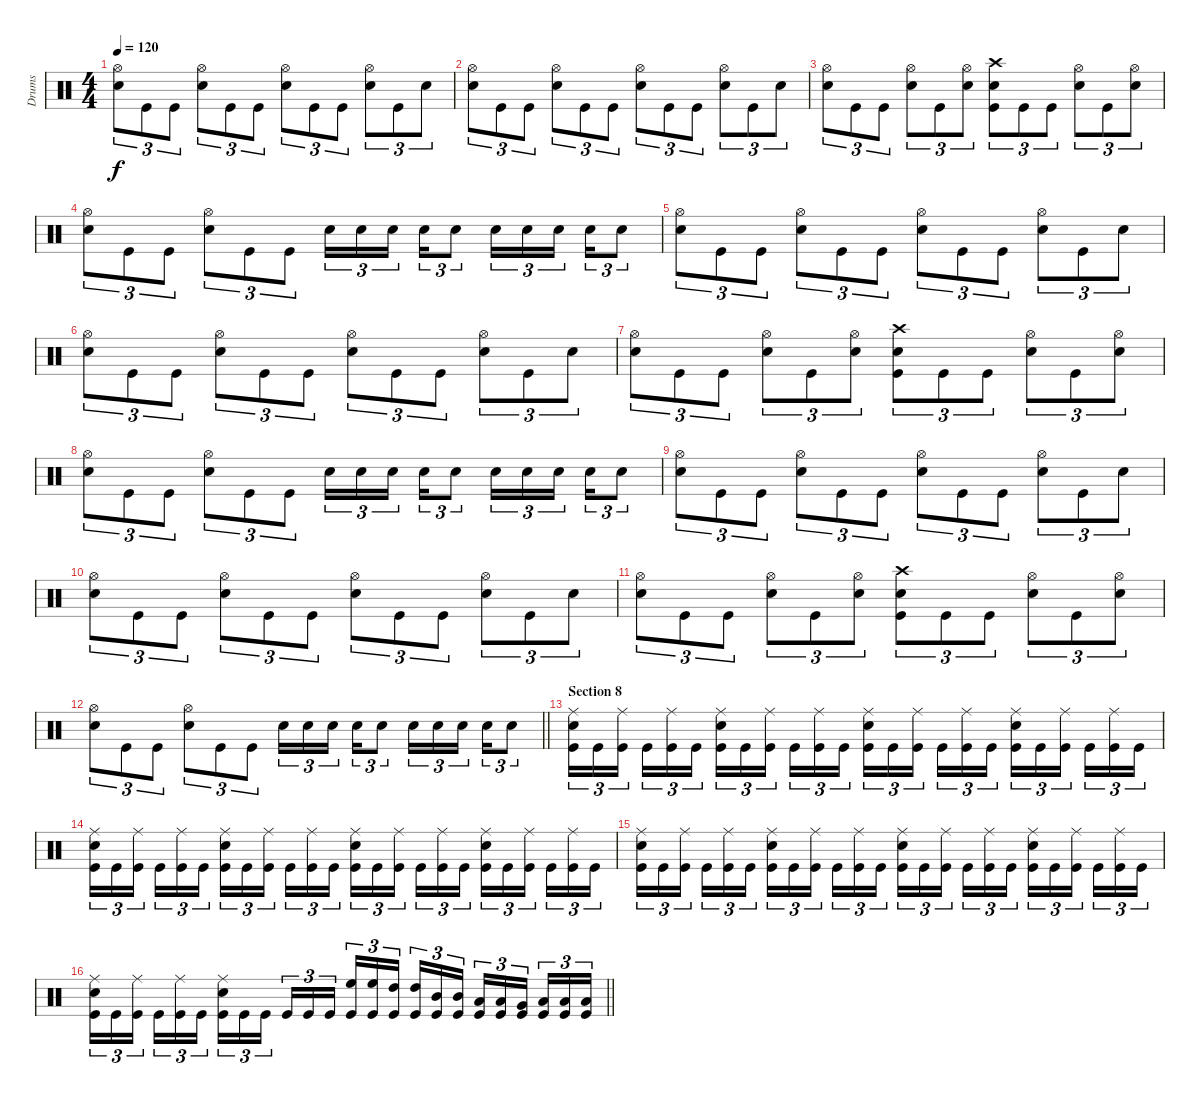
\track ("Drums" "Drums") {instrument percussion}
\staff {score}
\articulation defaults
\ts (4 4)
\tempo 120
\clef neutral
\ks c
("Hi-Hat (open)" "Snare (hit) 2").8{tu (3 2) dy f} "Kick (hit)".8{tu (3 2)} "Kick (hit)".8{tu (3 2)} ("Hi-Hat (open)" "Snare (hit) 2").8{tu (3 2)} "Kick (hit)".8{tu (3 2)} "Kick (hit)".8{tu (3 2)} ("Hi-Hat (open)" "Snare (hit) 2").8{tu (3 2)} "Kick (hit)".8{tu (3 2)} "Kick (hit)".8{tu (3 2)} ("Hi-Hat (open)" "Snare (hit) 2").8{tu (3 2)} "Kick (hit)".8{tu (3 2)} "Snare (hit) 2".8{tu (3 2)} |
("Hi-Hat (open)" "Snare (hit) 2").8{tu (3 2)} "Kick (hit)".8{tu (3 2)} "Kick (hit)".8{tu (3 2)} ("Hi-Hat (open)" "Snare (hit) 2").8{tu (3 2)} "Kick (hit)".8{tu (3 2)} "Kick (hit)".8{tu (3 2)} ("Hi-Hat (open)" "Snare (hit) 2").8{tu (3 2)} "Kick (hit)".8{tu (3 2)} "Kick (hit)".8{tu (3 2)} ("Hi-Hat (open)" "Snare (hit) 2").8{tu (3 2)} "Kick (hit)".8{tu (3 2)} "Snare (hit) 2".8{tu (3 2)} |
("Hi-Hat (open)" "Snare (hit) 2").8{tu (3 2)} "Kick (hit)".8{tu (3 2)} "Kick (hit)".8{tu (3 2)} ("Hi-Hat (open)" "Snare (hit) 2").8{tu (3 2)} "Kick (hit)".8{tu (3 2)} ("Hi-Hat (open)" "Snare (hit) 2").8{tu (3 2)} ("Crash high (hit)" "Snare (hit) 2" "Kick (hit)").8{tu (3 2)} "Kick (hit)".8{tu (3 2)} "Kick (hit)".8{tu (3 2)} ("Hi-Hat (open)" "Snare (hit) 2").8{tu (3 2)} "Kick (hit)".8{tu (3 2)} ("Hi-Hat (open)" "Snare (hit) 2").8{tu (3 2)} |
("Hi-Hat (open)" "Snare (hit) 2").8{tu (3 2)} "Kick (hit)".8{tu (3 2)} "Kick (hit)".8{tu (3 2)} ("Hi-Hat (open)" "Snare (hit) 2").8{tu (3 2)} "Kick (hit)".8{tu (3 2)} "Kick (hit)".8{tu (3 2)} "Snare (hit) 2".16{tu (3 2)} "Snare (hit) 2".16{tu (3 2)} "Snare (hit) 2".16{tu (3 2) beam splitsecondary} "Snare (hit) 2".16{tu (3 2)} "Snare (hit) 2".8{tu (3 2)} "Snare (hit) 2".16{tu (3 2)} "Snare (hit) 2".16{tu (3 2)} "Snare (hit) 2".16{tu (3 2) beam splitsecondary} "Snare (hit) 2".16{tu (3 2)} "Snare (hit) 2".8{tu (3 2)} |
("Hi-Hat (open)" "Snare (hit) 2").8{tu (3 2)} "Kick (hit)".8{tu (3 2)} "Kick (hit)".8{tu (3 2)} ("Hi-Hat (open)" "Snare (hit) 2").8{tu (3 2)} "Kick (hit)".8{tu (3 2)} "Kick (hit)".8{tu (3 2)} ("Hi-Hat (open)" "Snare (hit) 2").8{tu (3 2)} "Kick (hit)".8{tu (3 2)} "Kick (hit)".8{tu (3 2)} ("Hi-Hat (open)" "Snare (hit) 2").8{tu (3 2)} "Kick (hit)".8{tu (3 2)} "Snare (hit) 2".8{tu (3 2)} |
("Hi-Hat (open)" "Snare (hit) 2").8{tu (3 2)} "Kick (hit)".8{tu (3 2)} "Kick (hit)".8{tu (3 2)} ("Hi-Hat (open)" "Snare (hit) 2").8{tu (3 2)} "Kick (hit)".8{tu (3 2)} "Kick (hit)".8{tu (3 2)} ("Hi-Hat (open)" "Snare (hit) 2").8{tu (3 2)} "Kick (hit)".8{tu (3 2)} "Kick (hit)".8{tu (3 2)} ("Hi-Hat (open)" "Snare (hit) 2").8{tu (3 2)} "Kick (hit)".8{tu (3 2)} "Snare (hit) 2".8{tu (3 2)} |
("Hi-Hat (open)" "Snare (hit) 2").8{tu (3 2)} "Kick (hit)".8{tu (3 2)} "Kick (hit)".8{tu (3 2)} ("Hi-Hat (open)" "Snare (hit) 2").8{tu (3 2)} "Kick (hit)".8{tu (3 2)} ("Hi-Hat (open)" "Snare (hit) 2").8{tu (3 2)} ("Crash high (hit)" "Snare (hit) 2" "Kick (hit)").8{tu (3 2)} "Kick (hit)".8{tu (3 2)} "Kick (hit)".8{tu (3 2)} ("Hi-Hat (open)" "Snare (hit) 2").8{tu (3 2)} "Kick (hit)".8{tu (3 2)} ("Hi-Hat (open)" "Snare (hit) 2").8{tu (3 2)} |
("Hi-Hat (open)" "Snare (hit) 2").8{tu (3 2)} "Kick (hit)".8{tu (3 2)} "Kick (hit)".8{tu (3 2)} ("Hi-Hat (open)" "Snare (hit) 2").8{tu (3 2)} "Kick (hit)".8{tu (3 2)} "Kick (hit)".8{tu (3 2)} "Snare (hit) 2".16{tu (3 2)} "Snare (hit) 2".16{tu (3 2)} "Snare (hit) 2".16{tu (3 2) beam splitsecondary} "Snare (hit) 2".16{tu (3 2)} "Snare (hit) 2".8{tu (3 2)} "Snare (hit) 2".16{tu (3 2)} "Snare (hit) 2".16{tu (3 2)} "Snare (hit) 2".16{tu (3 2) beam splitsecondary} "Snare (hit) 2".16{tu (3 2)} "Snare (hit) 2".8{tu (3 2)} |
("Hi-Hat (open)" "Snare (hit) 2").8{tu (3 2)} "Kick (hit)".8{tu (3 2)} "Kick (hit)".8{tu (3 2)} ("Hi-Hat (open)" "Snare (hit) 2").8{tu (3 2)} "Kick (hit)".8{tu (3 2)} "Kick (hit)".8{tu (3 2)} ("Hi-Hat (open)" "Snare (hit) 2").8{tu (3 2)} "Kick (hit)".8{tu (3 2)} "Kick (hit)".8{tu (3 2)} ("Hi-Hat (open)" "Snare (hit) 2").8{tu (3 2)} "Kick (hit)".8{tu (3 2)} "Snare (hit) 2".8{tu (3 2)} |
("Hi-Hat (open)" "Snare (hit) 2").8{tu (3 2)} "Kick (hit)".8{tu (3 2)} "Kick (hit)".8{tu (3 2)} ("Hi-Hat (open)" "Snare (hit) 2").8{tu (3 2)} "Kick (hit)".8{tu (3 2)} "Kick (hit)".8{tu (3 2)} ("Hi-Hat (open)" "Snare (hit) 2").8{tu (3 2)} "Kick (hit)".8{tu (3 2)} "Kick (hit)".8{tu (3 2)} ("Hi-Hat (open)" "Snare (hit) 2").8{tu (3 2)} "Kick (hit)".8{tu (3 2)} "Snare (hit) 2".8{tu (3 2)} |
("Hi-Hat (open)" "Snare (hit) 2").8{tu (3 2)} "Kick (hit)".8{tu (3 2)} "Kick (hit)".8{tu (3 2)} ("Hi-Hat (open)" "Snare (hit) 2").8{tu (3 2)} "Kick (hit)".8{tu (3 2)} ("Hi-Hat (open)" "Snare (hit) 2").8{tu (3 2)} ("Crash high (hit)" "Snare (hit) 2" "Kick (hit)").8{tu (3 2)} "Kick (hit)".8{tu (3 2)} "Kick (hit)".8{tu (3 2)} ("Hi-Hat (open)" "Snare (hit) 2").8{tu (3 2)} "Kick (hit)".8{tu (3 2)} ("Hi-Hat (open)" "Snare (hit) 2").8{tu (3 2)} |
\barLineRight lightlight
("Hi-Hat (open)" "Snare (hit) 2").8{tu (3 2)} "Kick (hit)".8{tu (3 2)} "Kick (hit)".8{tu (3 2)} ("Hi-Hat (open)" "Snare (hit) 2").8{tu (3 2)} "Kick (hit)".8{tu (3 2)} "Kick (hit)".8{tu (3 2)} "Snare (hit) 2".16{tu (3 2)} "Snare (hit) 2".16{tu (3 2)} "Snare (hit) 2".16{tu (3 2) beam splitsecondary} "Snare (hit) 2".16{tu (3 2)} "Snare (hit) 2".8{tu (3 2)} "Snare (hit) 2".16{tu (3 2)} "Snare (hit) 2".16{tu (3 2)} "Snare (hit) 2".16{tu (3 2) beam splitsecondary} "Snare (hit) 2".16{tu (3 2)} "Snare (hit) 2".8{tu (3 2)} |
\section ("" "Section 8")
("Ride (middle)" "Snare (hit) 2" "Kick (hit)").16{tu (3 2)} "Kick (hit)".16{tu (3 2)} ("Ride (middle)" "Kick (hit)").16{tu (3 2) beam splitsecondary} "Kick (hit)".16{tu (3 2)} ("Ride (middle)" "Kick (hit)").16{tu (3 2)} "Kick (hit)".16{tu (3 2)} ("Ride (middle)" "Snare (hit) 2" "Kick (hit)").16{tu (3 2)} "Kick (hit)".16{tu (3 2)} ("Ride (middle)" "Kick (hit)").16{tu (3 2) beam splitsecondary} "Kick (hit)".16{tu (3 2)} ("Ride (middle)" "Kick (hit)").16{tu (3 2)} "Kick (hit)".16{tu (3 2)} ("Ride (middle)" "Snare (hit) 2" "Kick (hit)").16{tu (3 2)} "Kick (hit)".16{tu (3 2)} ("Ride (middle)" "Kick (hit)").16{tu (3 2) beam splitsecondary} "Kick (hit)".16{tu (3 2)} ("Ride (middle)" "Kick (hit)").16{tu (3 2)} "Kick (hit)".16{tu (3 2)} ("Ride (middle)" "Snare (hit) 2" "Kick (hit)").16{tu (3 2)} "Kick (hit)".16{tu (3 2)} ("Ride (middle)" "Kick (hit)").16{tu (3 2) beam splitsecondary} "Kick (hit)".16{tu (3 2)} ("Ride (middle)" "Kick (hit)").16{tu (3 2)} "Kick (hit)".16{tu (3 2)} |
("Ride (middle)" "Snare (hit) 2" "Kick (hit)").16{tu (3 2)} "Kick (hit)".16{tu (3 2)} ("Ride (middle)" "Kick (hit)").16{tu (3 2) beam splitsecondary} "Kick (hit)".16{tu (3 2)} ("Ride (middle)" "Kick (hit)").16{tu (3 2)} "Kick (hit)".16{tu (3 2)} ("Ride (middle)" "Snare (hit) 2" "Kick (hit)").16{tu (3 2)} "Kick (hit)".16{tu (3 2)} ("Ride (middle)" "Kick (hit)").16{tu (3 2) beam splitsecondary} "Kick (hit)".16{tu (3 2)} ("Ride (middle)" "Kick (hit)").16{tu (3 2)} "Kick (hit)".16{tu (3 2)} ("Ride (middle)" "Snare (hit) 2" "Kick (hit)").16{tu (3 2)} "Kick (hit)".16{tu (3 2)} ("Ride (middle)" "Kick (hit)").16{tu (3 2) beam splitsecondary} "Kick (hit)".16{tu (3 2)} ("Ride (middle)" "Kick (hit)").16{tu (3 2)} "Kick (hit)".16{tu (3 2)} ("Ride (middle)" "Snare (hit) 2" "Kick (hit)").16{tu (3 2)} "Kick (hit)".16{tu (3 2)} ("Ride (middle)" "Kick (hit)").16{tu (3 2) beam splitsecondary} "Kick (hit)".16{tu (3 2)} ("Ride (middle)" "Kick (hit)").16{tu (3 2)} "Kick (hit)".16{tu (3 2)} |
("Ride (middle)" "Snare (hit) 2" "Kick (hit)").16{tu (3 2)} "Kick (hit)".16{tu (3 2)} ("Ride (middle)" "Kick (hit)").16{tu (3 2) beam splitsecondary} "Kick (hit)".16{tu (3 2)} ("Ride (middle)" "Kick (hit)").16{tu (3 2)} "Kick (hit)".16{tu (3 2)} ("Ride (middle)" "Snare (hit) 2" "Kick (hit)").16{tu (3 2)} "Kick (hit)".16{tu (3 2)} ("Ride (middle)" "Kick (hit)").16{tu (3 2) beam splitsecondary} "Kick (hit)".16{tu (3 2)} ("Ride (middle)" "Kick (hit)").16{tu (3 2)} "Kick (hit)".16{tu (3 2)} ("Ride (middle)" "Snare (hit) 2" "Kick (hit)").16{tu (3 2)} "Kick (hit)".16{tu (3 2)} ("Ride (middle)" "Kick (hit)").16{tu (3 2) beam splitsecondary} "Kick (hit)".16{tu (3 2)} ("Ride (middle)" "Kick (hit)").16{tu (3 2)} "Kick (hit)".16{tu (3 2)} ("Ride (middle)" "Snare (hit) 2" "Kick (hit)").16{tu (3 2)} "Kick (hit)".16{tu (3 2)} ("Ride (middle)" "Kick (hit)").16{tu (3 2) beam splitsecondary} "Kick (hit)".16{tu (3 2)} ("Ride (middle)" "Kick (hit)").16{tu (3 2)} "Kick (hit)".16{tu (3 2)} |
\barLineRight lightlight
("Ride (middle)" "Snare (hit) 2" "Kick (hit)").16{tu (3 2)} "Kick (hit)".16{tu (3 2)} ("Ride (middle)" "Kick (hit)").16{tu (3 2) beam splitsecondary} "Kick (hit)".16{tu (3 2)} ("Ride (middle)" "Kick (hit)").16{tu (3 2)} "Kick (hit)".16{tu (3 2)} ("Ride (middle)" "Snare (hit) 2" "Kick (hit)").16{tu (3 2)} "Kick (hit)".16{tu (3 2)} "Kick (hit)".16{tu (3 2) beam splitsecondary} "Kick (hit)".16{tu (3 2)} "Kick (hit)".16{tu (3 2)} "Kick (hit)".16{tu (3 2)} ("High Floor Tom (hit)" "Kick (hit)").16{tu (3 2)} ("High Floor Tom (hit)" "Kick (hit)").16{tu (3 2)} ("High Tom (hit)" "Kick (hit)").16{tu (3 2) beam splitsecondary} ("High Tom (hit)" "Kick (hit)").16{tu (3 2)} ("Mid Tom (hit)" "Kick (hit)").16{tu (3 2)} ("Mid Tom (hit)" "Kick (hit)").16{tu (3 2)} ("Low Tom (hit)" "Kick (hit)").16{tu (3 2)} ("Low Tom (hit)" "Kick (hit)").16{tu (3 2)} ("Very Low Tom (hit)" "Kick (hit)").16{tu (3 2) beam splitsecondary} ("Low Floor Tom (hit)" "Kick (hit)").16{tu (3 2)} ("Low Floor Tom (hit)" "Kick (hit)").16{tu (3 2)} ("Low Floor Tom (hit)" "Kick (hit)").16{tu (3 2)}
